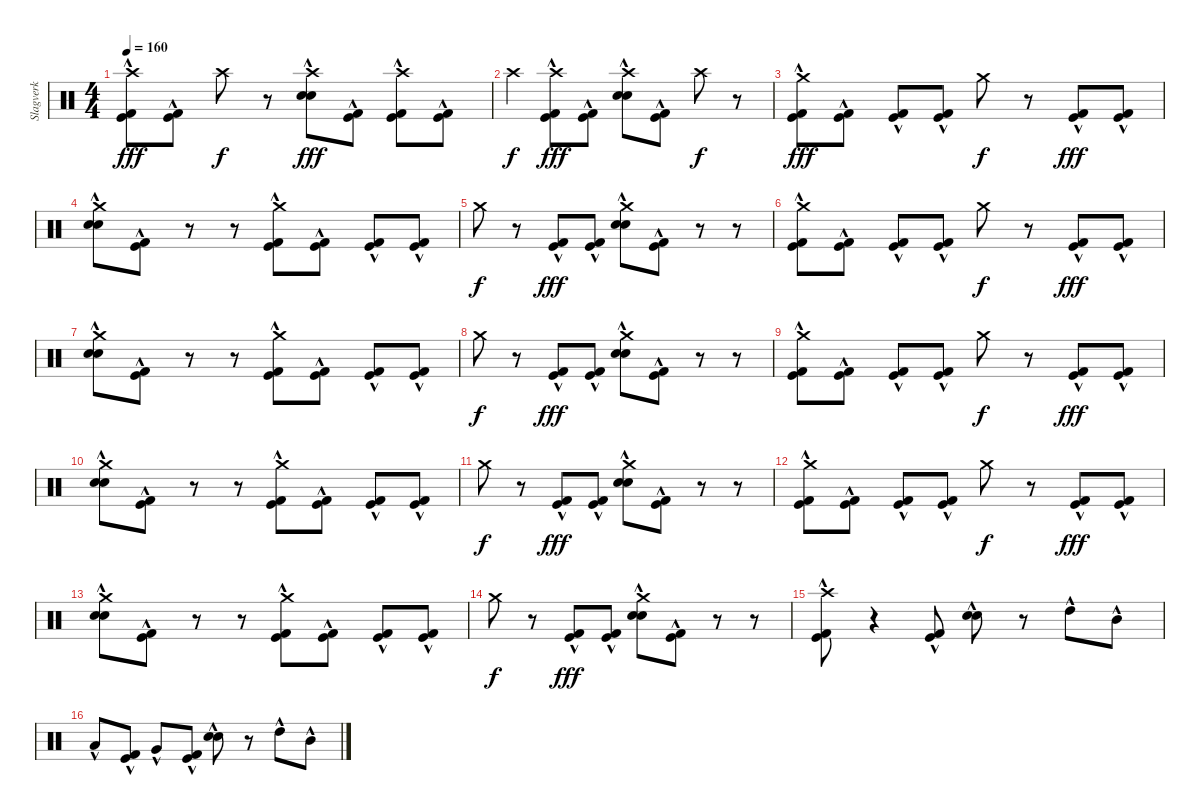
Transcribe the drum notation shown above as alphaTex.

\track ("Slagverk" "Slagverk") {instrument percussion}
\staff {score}
\articulation defaults
\ts (4 4)
\tempo 160
\clef neutral
\ks c
("Crash high (hit)" "Kick (hit)"{hac} "Kick (hit) 2"{hac}).8{dy fff} ("Kick (hit)"{hac} "Kick (hit) 2"{hac}).8 "Crash high (hit)".8{dy f} r.8 ("Crash high (hit)" "Electric Snare (hit)"{hac} "Snare (hit) 2"{hac}).8{dy fff} ("Kick (hit)"{hac} "Kick (hit) 2"{hac}).8 ("Crash high (hit)" "Kick (hit)"{hac} "Kick (hit) 2"{hac}).8 ("Kick (hit)"{hac} "Kick (hit) 2"{hac}).8 |
"Crash high (hit)".4{dy f} ("Crash high (hit)" "Kick (hit)"{hac} "Kick (hit) 2"{hac}).8{dy fff} ("Kick (hit)"{hac} "Kick (hit) 2"{hac}).8 ("Crash high (hit)" "Electric Snare (hit)"{hac} "Snare (hit) 2"{hac}).8 ("Kick (hit)"{hac} "Kick (hit) 2"{hac}).8 "Crash high (hit)".8{dy f} r.8 |
("Crash medium (hit)" "Kick (hit)"{hac} "Kick (hit) 2"{hac}).8{dy fff} ("Kick (hit)"{hac} "Kick (hit) 2"{hac}).8 ("Kick (hit)"{hac} "Kick (hit) 2"{hac}).8 ("Kick (hit)"{hac} "Kick (hit) 2"{hac}).8 "Crash medium (hit)".8{dy f} r.8 ("Kick (hit)"{hac} "Kick (hit) 2"{hac}).8{dy fff} ("Kick (hit)"{hac} "Kick (hit) 2"{hac}).8 |
("Crash medium (hit)" "Electric Snare (hit)"{hac} "Snare (hit) 2"{hac}).8 ("Kick (hit)"{hac} "Kick (hit) 2"{hac}).8 r.8 r.8 ("Crash medium (hit)" "Kick (hit)"{hac} "Kick (hit) 2"{hac}).8 ("Kick (hit)"{hac} "Kick (hit) 2"{hac}).8 ("Kick (hit)"{hac} "Kick (hit) 2"{hac}).8 ("Kick (hit)"{hac} "Kick (hit) 2"{hac}).8 |
"Crash medium (hit)".8{dy f} r.8 ("Kick (hit)"{hac} "Kick (hit) 2"{hac}).8{dy fff} ("Kick (hit)"{hac} "Kick (hit) 2"{hac}).8 ("Crash medium (hit)" "Electric Snare (hit)"{hac} "Snare (hit) 2"{hac}).8 ("Kick (hit)"{hac} "Kick (hit) 2"{hac}).8 r.8 r.8 |
("Crash medium (hit)" "Kick (hit)"{hac} "Kick (hit) 2"{hac}).8 ("Kick (hit)"{hac} "Kick (hit) 2"{hac}).8 ("Kick (hit)"{hac} "Kick (hit) 2"{hac}).8 ("Kick (hit)"{hac} "Kick (hit) 2"{hac}).8 "Crash medium (hit)".8{dy f} r.8 ("Kick (hit)"{hac} "Kick (hit) 2"{hac}).8{dy fff} ("Kick (hit)"{hac} "Kick (hit) 2"{hac}).8 |
("Crash medium (hit)" "Electric Snare (hit)"{hac} "Snare (hit) 2"{hac}).8 ("Kick (hit)"{hac} "Kick (hit) 2"{hac}).8 r.8 r.8 ("Crash medium (hit)" "Kick (hit)"{hac} "Kick (hit) 2"{hac}).8 ("Kick (hit)"{hac} "Kick (hit) 2"{hac}).8 ("Kick (hit)"{hac} "Kick (hit) 2"{hac}).8 ("Kick (hit)"{hac} "Kick (hit) 2"{hac}).8 |
"Crash medium (hit)".8{dy f} r.8 ("Kick (hit)"{hac} "Kick (hit) 2"{hac}).8{dy fff} ("Kick (hit)"{hac} "Kick (hit) 2"{hac}).8 ("Crash medium (hit)" "Electric Snare (hit)"{hac} "Snare (hit) 2"{hac}).8 ("Kick (hit)"{hac} "Kick (hit) 2"{hac}).8 r.8 r.8 |
("Crash medium (hit)" "Kick (hit)"{hac} "Kick (hit) 2"{hac}).8 ("Kick (hit)"{hac} "Kick (hit) 2"{hac}).8 ("Kick (hit)"{hac} "Kick (hit) 2"{hac}).8 ("Kick (hit)"{hac} "Kick (hit) 2"{hac}).8 "Crash medium (hit)".8{dy f} r.8 ("Kick (hit)"{hac} "Kick (hit) 2"{hac}).8{dy fff} ("Kick (hit)"{hac} "Kick (hit) 2"{hac}).8 |
("Crash medium (hit)" "Electric Snare (hit)"{hac} "Snare (hit) 2"{hac}).8 ("Kick (hit)"{hac} "Kick (hit) 2"{hac}).8 r.8 r.8 ("Crash medium (hit)" "Kick (hit)"{hac} "Kick (hit) 2"{hac}).8 ("Kick (hit)"{hac} "Kick (hit) 2"{hac}).8 ("Kick (hit)"{hac} "Kick (hit) 2"{hac}).8 ("Kick (hit)"{hac} "Kick (hit) 2"{hac}).8 |
"Crash medium (hit)".8{dy f} r.8 ("Kick (hit)"{hac} "Kick (hit) 2"{hac}).8{dy fff} ("Kick (hit)"{hac} "Kick (hit) 2"{hac}).8 ("Crash medium (hit)" "Electric Snare (hit)"{hac} "Snare (hit) 2"{hac}).8 ("Kick (hit)"{hac} "Kick (hit) 2"{hac}).8 r.8 r.8 |
("Crash medium (hit)" "Kick (hit)"{hac} "Kick (hit) 2"{hac}).8 ("Kick (hit)"{hac} "Kick (hit) 2"{hac}).8 ("Kick (hit)"{hac} "Kick (hit) 2"{hac}).8 ("Kick (hit)"{hac} "Kick (hit) 2"{hac}).8 "Crash medium (hit)".8{dy f} r.8 ("Kick (hit)"{hac} "Kick (hit) 2"{hac}).8{dy fff} ("Kick (hit)"{hac} "Kick (hit) 2"{hac}).8 |
("Crash medium (hit)" "Electric Snare (hit)"{hac} "Snare (hit) 2"{hac}).8 ("Kick (hit)"{hac} "Kick (hit) 2"{hac}).8 r.8 r.8 ("Crash medium (hit)" "Kick (hit)"{hac} "Kick (hit) 2"{hac}).8 ("Kick (hit)"{hac} "Kick (hit) 2"{hac}).8 ("Kick (hit)"{hac} "Kick (hit) 2"{hac}).8 ("Kick (hit)"{hac} "Kick (hit) 2"{hac}).8 |
"Crash medium (hit)".8{dy f} r.8 ("Kick (hit)"{hac} "Kick (hit) 2"{hac}).8{dy fff} ("Kick (hit)"{hac} "Kick (hit) 2"{hac}).8 ("Crash medium (hit)" "Electric Snare (hit)"{hac} "Snare (hit) 2"{hac}).8 ("Kick (hit)"{hac} "Kick (hit) 2"{hac}).8 r.8 r.8 |
("Crash high (hit)" "Kick (hit)"{hac} "Kick (hit) 2"{hac}).8 r.4 ("Kick (hit)"{hac} "Kick (hit) 2"{hac}).8 ("Electric Snare (hit)"{hac} "Snare (hit) 2"{hac}).8 r.8 "High Tom (hit)"{hac}.8 "Mid Tom (hit)"{hac}.8 |
"Low Tom (hit)"{hac}.8 ("Kick (hit)"{hac} "Kick (hit) 2"{hac}).8 "Very Low Tom (hit)"{hac}.8 ("Kick (hit)"{hac} "Kick (hit) 2"{hac}).8 ("Electric Snare (hit)"{hac} "Snare (hit) 2"{hac}).8 r.8 "High Tom (hit)"{hac}.8 "Mid Tom (hit)"{hac}.8
